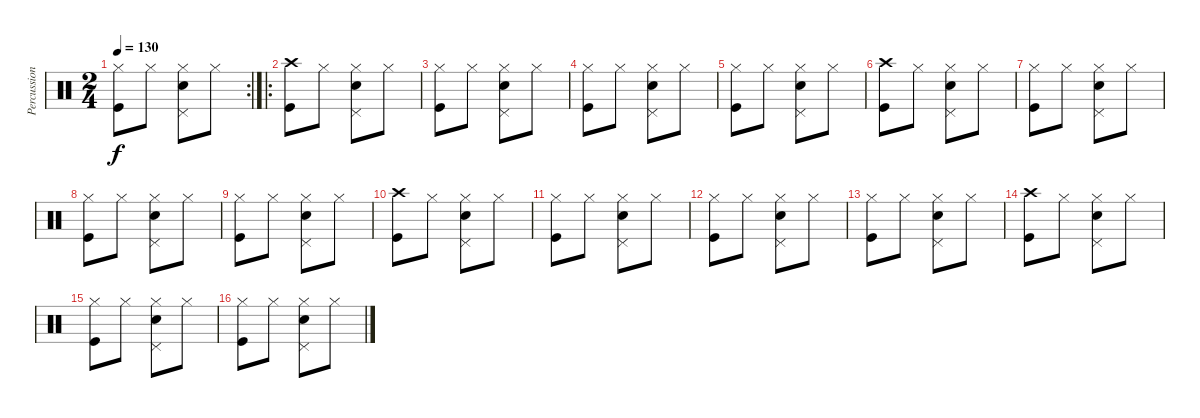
\track ("Percussioni" "Percussion") {instrument percussion}
\staff {score}
\articulation defaults
\rc 2
\ts (2 4)
\tempo 130
\clef neutral
\ks c
("Hi-Hat (closed)" "Kick (hit)").8{dy f} "Hi-Hat (closed)".8 ("Hi-Hat (closed)" "Pedal Hi-Hat (hit)" "Snare (hit) 2").8 "Hi-Hat (closed)".8 |
\ro
("Crash high (hit)" "Kick (hit)").8 "Hi-Hat (closed)".8 ("Hi-Hat (closed)" "Pedal Hi-Hat (hit)" "Snare (hit) 2").8 "Hi-Hat (closed)".8 |
("Hi-Hat (closed)" "Kick (hit)").8 "Hi-Hat (closed)".8 ("Hi-Hat (closed)" "Pedal Hi-Hat (hit)" "Snare (hit) 2").8 "Hi-Hat (closed)".8 |
("Hi-Hat (closed)" "Kick (hit)").8 "Hi-Hat (closed)".8 ("Hi-Hat (closed)" "Pedal Hi-Hat (hit)" "Snare (hit) 2").8 "Hi-Hat (closed)".8 |
("Hi-Hat (closed)" "Kick (hit)").8 "Hi-Hat (closed)".8 ("Hi-Hat (closed)" "Pedal Hi-Hat (hit)" "Snare (hit) 2").8 "Hi-Hat (closed)".8 |
("Crash high (hit)" "Kick (hit)").8 "Hi-Hat (closed)".8 ("Hi-Hat (closed)" "Pedal Hi-Hat (hit)" "Snare (hit) 2").8 "Hi-Hat (closed)".8 |
("Hi-Hat (closed)" "Kick (hit)").8 "Hi-Hat (closed)".8 ("Hi-Hat (closed)" "Pedal Hi-Hat (hit)" "Snare (hit) 2").8 "Hi-Hat (closed)".8 |
("Hi-Hat (closed)" "Kick (hit)").8 "Hi-Hat (closed)".8 ("Hi-Hat (closed)" "Pedal Hi-Hat (hit)" "Snare (hit) 2").8 "Hi-Hat (closed)".8 |
("Hi-Hat (closed)" "Kick (hit)").8 "Hi-Hat (closed)".8 ("Hi-Hat (closed)" "Pedal Hi-Hat (hit)" "Snare (hit) 2").8 "Hi-Hat (closed)".8 |
("Crash high (hit)" "Kick (hit)").8 "Hi-Hat (closed)".8 ("Hi-Hat (closed)" "Pedal Hi-Hat (hit)" "Snare (hit) 2").8 "Hi-Hat (closed)".8 |
("Hi-Hat (closed)" "Kick (hit)").8 "Hi-Hat (closed)".8 ("Hi-Hat (closed)" "Pedal Hi-Hat (hit)" "Snare (hit) 2").8 "Hi-Hat (closed)".8 |
("Hi-Hat (closed)" "Kick (hit)").8 "Hi-Hat (closed)".8 ("Hi-Hat (closed)" "Pedal Hi-Hat (hit)" "Snare (hit) 2").8 "Hi-Hat (closed)".8 |
("Hi-Hat (closed)" "Kick (hit)").8 "Hi-Hat (closed)".8 ("Hi-Hat (closed)" "Pedal Hi-Hat (hit)" "Snare (hit) 2").8 "Hi-Hat (closed)".8 |
("Crash high (hit)" "Kick (hit)").8 "Hi-Hat (closed)".8 ("Hi-Hat (closed)" "Pedal Hi-Hat (hit)" "Snare (hit) 2").8 "Hi-Hat (closed)".8 |
("Hi-Hat (closed)" "Kick (hit)").8 "Hi-Hat (closed)".8 ("Hi-Hat (closed)" "Pedal Hi-Hat (hit)" "Snare (hit) 2").8 "Hi-Hat (closed)".8 |
("Hi-Hat (closed)" "Kick (hit)").8 "Hi-Hat (closed)".8 ("Hi-Hat (closed)" "Pedal Hi-Hat (hit)" "Snare (hit) 2").8 "Hi-Hat (closed)".8
